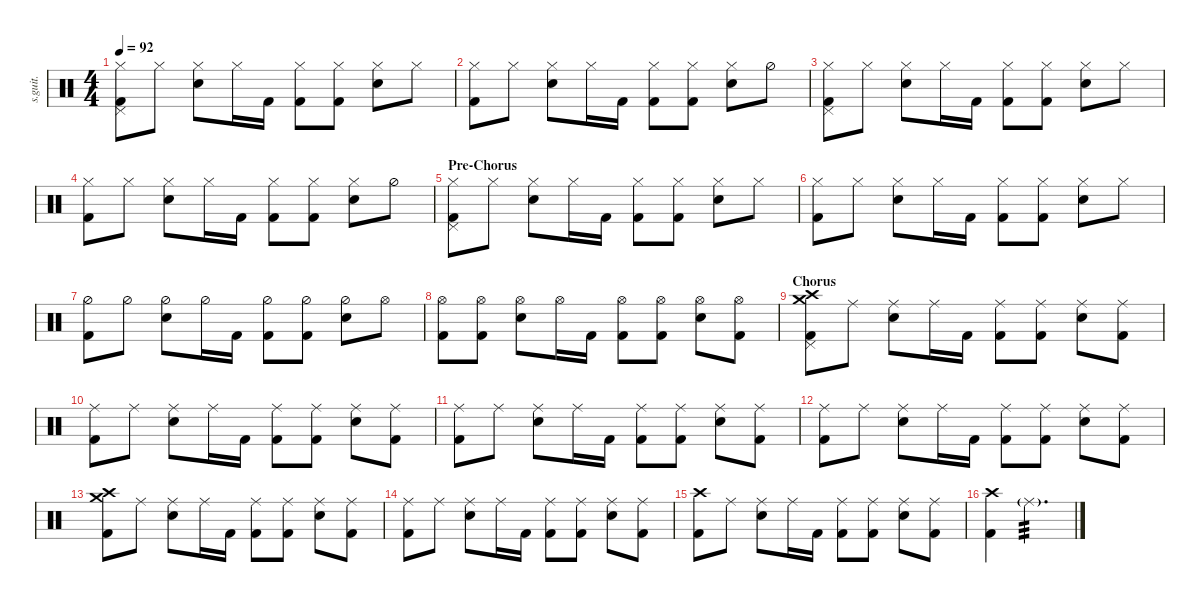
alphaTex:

\defaultSystemsLayout 4
\hideDynamics
\bracketExtendMode nobrackets
\track ("Phil Selway | DW Drum Kit | Drums" "s.guit.") {instrument percussion}
\staff {score}
\articulation defaults
\ts (4 4)
\tempo 92
\clef neutral
\ks c
("Hi-Hat (closed)" "Kick (hit) 2" "Pedal Hi-Hat (hit)").8{dy f} "Hi-Hat (closed)".8 ("Hi-Hat (closed)" "Snare (hit) 2").8 "Hi-Hat (closed)".16 "Kick (hit) 2".16 ("Hi-Hat (closed)" "Kick (hit) 2").8 ("Hi-Hat (closed)" "Kick (hit) 2").8 ("Hi-Hat (closed)" "Snare (hit) 2").8 "Hi-Hat (closed)".8 |
("Hi-Hat (closed)" "Kick (hit) 2").8 "Hi-Hat (closed)".8 ("Hi-Hat (closed)" "Snare (hit) 2").8 "Hi-Hat (closed)".16 "Kick (hit) 2".16 ("Hi-Hat (closed)" "Kick (hit) 2").8 ("Hi-Hat (closed)" "Kick (hit) 2").8 ("Hi-Hat (closed)" "Snare (hit) 2").8 "Hi-Hat (half)".8 |
("Hi-Hat (closed)" "Kick (hit) 2" "Pedal Hi-Hat (hit)").8 "Hi-Hat (closed)".8 ("Hi-Hat (closed)" "Snare (hit) 2").8 "Hi-Hat (closed)".16 "Kick (hit) 2".16 ("Hi-Hat (closed)" "Kick (hit) 2").8 ("Hi-Hat (closed)" "Kick (hit) 2").8 ("Hi-Hat (closed)" "Snare (hit) 2").8 "Hi-Hat (closed)".8 |
("Hi-Hat (closed)" "Kick (hit) 2").8 "Hi-Hat (closed)".8 ("Hi-Hat (closed)" "Snare (hit) 2").8 "Hi-Hat (closed)".16 "Kick (hit) 2".16 ("Hi-Hat (closed)" "Kick (hit) 2").8 ("Hi-Hat (closed)" "Kick (hit) 2").8 ("Hi-Hat (closed)" "Snare (hit) 2").8 "Hi-Hat (half)".8 |
\section ("" "Pre-Chorus")
("Hi-Hat (closed)" "Kick (hit) 2" "Pedal Hi-Hat (hit)").8 "Hi-Hat (closed)".8 ("Hi-Hat (closed)" "Snare (hit) 2").8 "Hi-Hat (closed)".16 "Kick (hit) 2".16 ("Hi-Hat (closed)" "Kick (hit) 2").8 ("Hi-Hat (closed)" "Kick (hit) 2").8 ("Hi-Hat (closed)" "Snare (hit) 2").8 "Hi-Hat (closed)".8 |
("Hi-Hat (closed)" "Kick (hit) 2").8 "Hi-Hat (closed)".8 ("Hi-Hat (closed)" "Snare (hit) 2").8 "Hi-Hat (closed)".16 "Kick (hit) 2".16 ("Hi-Hat (closed)" "Kick (hit) 2").8 ("Hi-Hat (closed)" "Kick (hit) 2").8 ("Hi-Hat (closed)" "Snare (hit) 2").8 "Hi-Hat (closed)".8 |
("Hi-Hat (half)" "Kick (hit) 2").8{dy ff} "Hi-Hat (half)".8 ("Hi-Hat (half)" "Snare (hit) 2").8 "Hi-Hat (half)".16 "Kick (hit) 2".16 ("Hi-Hat (half)" "Kick (hit) 2").8 ("Hi-Hat (half)" "Kick (hit) 2").8 ("Hi-Hat (half)" "Snare (hit) 2").8 "Hi-Hat (open)".8 |
("Hi-Hat (open)" "Kick (hit) 2").8 ("Hi-Hat (open)" "Kick (hit) 2").8 ("Hi-Hat (open)" "Snare (hit) 2").8 "Hi-Hat (open)".16 "Kick (hit) 2".16 ("Hi-Hat (open)" "Kick (hit) 2").8 ("Hi-Hat (open)" "Kick (hit) 2").8 ("Hi-Hat (open)" "Snare (hit) 2").8 ("Hi-Hat (open)" "Kick (hit) 2").8 |
\section ("" "Chorus")
("Crash high (hit)" "Crash medium (hit)" "Kick (hit) 2" "Pedal Hi-Hat (hit)").8{dy fff} "Ride (middle)".8 ("Ride (middle)" "Snare (hit) 2").8 "Ride (middle)".16 "Kick (hit) 2".16 ("Ride (middle)" "Kick (hit) 2").8 ("Ride (middle)" "Kick (hit) 2").8 ("Ride (middle)" "Snare (hit) 2").8 ("Ride (middle)" "Kick (hit) 2").8 |
("Ride (middle)" "Kick (hit) 2").8 "Ride (middle)".8 ("Ride (middle)" "Snare (hit) 2").8 "Ride (middle)".16 "Kick (hit) 2".16 ("Ride (middle)" "Kick (hit) 2").8 ("Ride (middle)" "Kick (hit) 2").8 ("Ride (middle)" "Snare (hit) 2").8 ("Ride (middle)" "Kick (hit) 2").8 |
("Ride (middle)" "Kick (hit) 2").8 "Ride (middle)".8 ("Ride (middle)" "Snare (hit) 2").8 "Ride (middle)".16 "Kick (hit) 2".16 ("Ride (middle)" "Kick (hit) 2").8 ("Ride (middle)" "Kick (hit) 2").8 ("Ride (middle)" "Snare (hit) 2").8 ("Ride (middle)" "Kick (hit) 2").8 |
("Ride (middle)" "Kick (hit) 2").8 "Ride (middle)".8 ("Ride (middle)" "Snare (hit) 2").8 "Ride (middle)".16 "Kick (hit) 2".16 ("Ride (middle)" "Kick (hit) 2").8 ("Ride (middle)" "Kick (hit) 2").8 ("Ride (middle)" "Snare (hit) 2").8 ("Ride (middle)" "Kick (hit) 2").8 |
("Crash high (hit)" "Crash medium (hit)" "Kick (hit) 2").8 "Ride (middle)".8 ("Ride (middle)" "Snare (hit) 2").8 "Ride (middle)".16 "Kick (hit) 2".16 ("Ride (middle)" "Kick (hit) 2").8 ("Ride (middle)" "Kick (hit) 2").8 ("Ride (middle)" "Snare (hit) 2").8 ("Ride (middle)" "Kick (hit) 2").8 |
("Ride (middle)" "Kick (hit) 2").8 "Ride (middle)".8 ("Ride (middle)" "Snare (hit) 2").8 "Ride (middle)".16 "Kick (hit) 2".16 ("Ride (middle)" "Kick (hit) 2").8 ("Ride (middle)" "Kick (hit) 2").8 ("Ride (middle)" "Snare (hit) 2").8 ("Ride (middle)" "Kick (hit) 2").8 |
("Crash high (hit)" "Kick (hit) 2").8 "Ride (middle)".8 ("Ride (middle)" "Snare (hit) 2").8 "Ride (middle)".16 "Kick (hit) 2".16 ("Ride (middle)" "Kick (hit) 2").8 ("Ride (middle)" "Kick (hit) 2").8 ("Ride (middle)" "Snare (hit) 2").8 ("Ride (middle)" "Kick (hit) 2").8 |
("Crash high (hit)" "Kick (hit) 2").4 "Ride (middle)"{g}.2{d tp 3 dy f}
